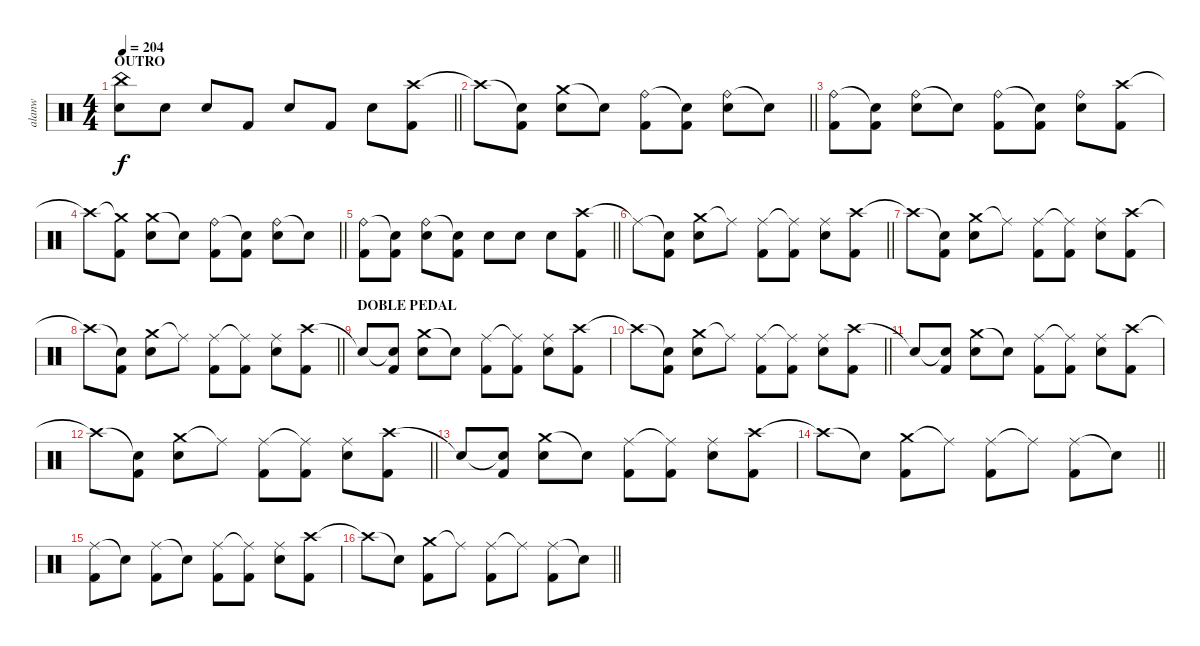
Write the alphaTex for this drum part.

\track ("alanw" "alanw") {instrument percussion}
\staff {score}
\articulation defaults
\ts (4 4)
\section ("" "OUTRO")
\tempo 204
\clef neutral
\barLineRight lightlight
\ks c
("China (hit)" "Electric Snare (hit)").8{dy f} "Electric Snare (hit)".8 "Electric Snare (hit)".8 "Kick (hit) 2".8 "Electric Snare (hit)".8 "Kick (hit) 2".8 "Electric Snare (hit)".8 ("Crash high (hit)" "Kick (hit) 2").8 |
\barLineRight lightlight "Crash high (hit)"{t}.8
("Snare (hit)"{t} "Kick (hit) 2").8 ("Crash medium (hit)" "Electric Snare (hit)").8 "Snare (hit)"{t}.8 ("Ride (bell)" "Kick (hit) 2").8 ("Snare (hit)"{t} "Kick (hit) 2").8 ("Ride (bell)" "Electric Snare (hit)").8 "Snare (hit)"{t}.8 |
("Ride (bell)" "Kick (hit) 2").8 ("Snare (hit)"{t} "Kick (hit) 2").8 ("Ride (bell)" "Electric Snare (hit)").8 "Snare (hit)"{t}.8 ("Ride (bell)" "Kick (hit) 2").8 ("Snare (hit)"{t} "Kick (hit) 2").8 ("Ride (bell)" "Electric Snare (hit)").8 ("Crash high (hit)" "Kick (hit) 2").8 |
\barLineRight lightlight "Crash high (hit)"{t}.8
("Crash medium (hit)"{t} "Kick (hit) 2").8 ("Crash medium (hit)" "Electric Snare (hit)").8 "Snare (hit)"{t}.8 ("Ride (bell)" "Kick (hit) 2").8 ("Snare (hit)"{t} "Kick (hit) 2").8 ("Ride (bell)" "Electric Snare (hit)").8 "Snare (hit)"{t}.8 |
\barLineRight lightlight
("Ride (bell)" "Kick (hit) 2").8 ("Snare (hit)"{t} "Kick (hit) 2").8 ("Ride (bell)" "Electric Snare (hit)").8 ("Snare (hit)"{t} "Kick (hit) 2").8 "Electric Snare (hit)".8 "Electric Snare (hit)".8 "Electric Snare (hit)".8 ("Crash high (hit)" "Kick (hit) 2").8 |
\barLineRight lightlight "Ride (middle)"{t}.8
("Snare (hit)"{t} "Kick (hit) 2").8 ("Crash medium (hit)" "Electric Snare (hit)").8 "Ride (middle)"{t}.8 ("Ride (middle)" "Kick (hit) 2").8 ("Ride (middle)"{t} "Kick (hit) 2").8 ("Ride (middle)" "Electric Snare (hit)").8 ("Crash high (hit)" "Kick (hit) 2").8 |
"Crash high (hit)"{t}.8 ("Snare (hit)"{t} "Kick (hit) 2").8 ("Crash medium (hit)" "Electric Snare (hit)").8 "Ride (middle)"{t}.8 ("Ride (middle)" "Kick (hit) 2").8 ("Ride (middle)"{t} "Kick (hit) 2").8 ("Ride (middle)" "Electric Snare (hit)").8 ("Crash high (hit)" "Kick (hit) 2").8 |
\barLineRight lightlight "Crash high (hit)"{t}.8
("Snare (hit)"{t} "Kick (hit) 2").8 ("Crash medium (hit)" "Electric Snare (hit)").8 "Ride (middle)"{t}.8 ("Ride (middle)" "Kick (hit) 2").8 ("Ride (middle)"{t} "Kick (hit) 2").8 ("Ride (middle)" "Electric Snare (hit)").8 ("Crash high (hit)" "Kick (hit) 2").8 |
\section ("" "DOBLE PEDAL")
"Snare (hit)"{t}.8 ("Snare (hit)"{t} "Kick (hit) 2").8 ("Crash medium (hit)" "Electric Snare (hit)").8 "Snare (hit)"{t}.8 ("Ride (middle)" "Kick (hit) 2").8 ("Ride (middle)"{t} "Kick (hit) 2").8 ("Ride (middle)" "Electric Snare (hit)").8 ("Crash high (hit)" "Kick (hit) 2").8 |
\barLineRight lightlight "Crash high (hit)"{t}.8
("Snare (hit)"{t} "Kick (hit) 2").8 ("Crash medium (hit)" "Electric Snare (hit)").8 "Ride (middle)"{t}.8 ("Ride (middle)" "Kick (hit) 2").8 ("Ride (middle)"{t} "Kick (hit) 2").8 ("Ride (middle)" "Electric Snare (hit)").8 ("Crash high (hit)" "Kick (hit) 2").8 |
"Snare (hit)"{t}.8 ("Snare (hit)"{t} "Kick (hit) 2").8 ("Crash medium (hit)" "Electric Snare (hit)").8 "Snare (hit)"{t}.8 ("Ride (middle)" "Kick (hit) 2").8 ("Ride (middle)"{t} "Kick (hit) 2").8 ("Ride (middle)" "Electric Snare (hit)").8 ("Crash high (hit)" "Kick (hit) 2").8 |
\barLineRight lightlight "Crash high (hit)"{t}.8
("Snare (hit)"{t} "Kick (hit) 2").8 ("Crash medium (hit)" "Electric Snare (hit)").8 "Ride (middle)"{t}.8 ("Ride (middle)" "Kick (hit) 2").8 ("Ride (middle)"{t} "Kick (hit) 2").8 ("Ride (middle)" "Electric Snare (hit)").8 ("Crash high (hit)" "Kick (hit) 2").8 |
"Snare (hit)"{t}.8 ("Snare (hit)"{t} "Kick (hit) 2").8 ("Crash medium (hit)" "Electric Snare (hit)").8 "Snare (hit)"{t}.8 ("Ride (middle)" "Kick (hit) 2").8 ("Ride (middle)"{t} "Kick (hit) 2").8 ("Ride (middle)" "Electric Snare (hit)").8 ("Crash high (hit)" "Kick (hit) 2").8 |
\barLineRight lightlight "Crash high (hit)"{t}.8 "Snare (hit)"{t}.8
("Crash medium (hit)" "Kick (hit) 2").8 "Ride (middle)"{t}.8 ("Ride (middle)" "Kick (hit) 2").8 "Ride (middle)"{t}.8 ("Ride (middle)" "Kick (hit) 2").8 "Snare (hit)"{t}.8 |
("Ride (middle)" "Kick (hit) 2").8 "Snare (hit)"{t}.8 ("Ride (middle)" "Kick (hit) 2").8 "Snare (hit)"{t}.8 ("Ride (middle)" "Kick (hit) 2").8 ("Ride (middle)"{t} "Kick (hit) 2").8 ("Ride (middle)" "Electric Snare (hit)").8 ("Crash high (hit)" "Kick (hit) 2").8 |
\barLineRight lightlight "Crash high (hit)"{t}.8 "Snare (hit)"{t}.8
("Crash medium (hit)" "Kick (hit) 2").8 "Ride (middle)"{t}.8 ("Ride (middle)" "Kick (hit) 2").8 "Ride (middle)"{t}.8 ("Ride (middle)" "Kick (hit) 2").8 "Snare (hit)"{t}.8
